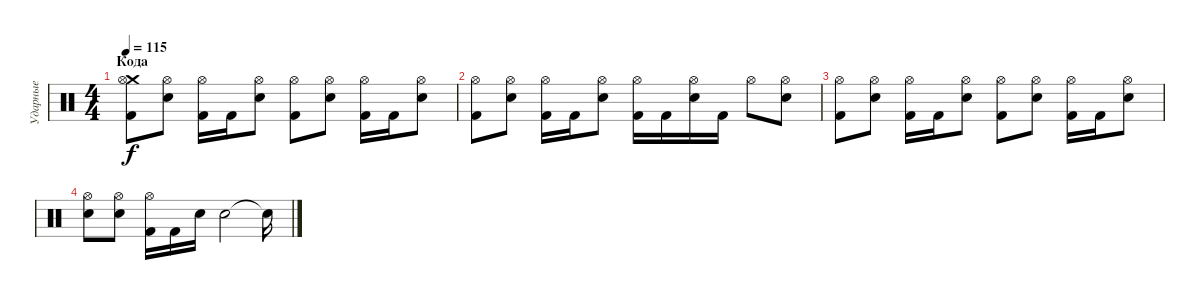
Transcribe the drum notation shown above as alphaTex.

\track ("Ударные" "Ударные") {instrument percussion}
\staff {score}
\articulation defaults
\ts (4 4)
\section ("" "Кода")
\tempo 115
\clef neutral
\ks aminor
("Crash medium (hit)" "Kick (hit) 2" "Hi-Hat (open)").8{dy f} ("Electric Snare (hit)" "Hi-Hat (open)").8 ("Kick (hit) 2" "Hi-Hat (open)").16 "Kick (hit) 2".16 ("Electric Snare (hit)" "Hi-Hat (open)").8 ("Kick (hit) 2" "Hi-Hat (open)").8 ("Electric Snare (hit)" "Hi-Hat (open)").8 ("Kick (hit) 2" "Hi-Hat (open)").16 "Kick (hit) 2".16 ("Electric Snare (hit)" "Hi-Hat (open)").8 |
("Kick (hit) 2" "Hi-Hat (open)").8 ("Electric Snare (hit)" "Hi-Hat (open)").8 ("Kick (hit) 2" "Hi-Hat (open)").16 "Kick (hit) 2".16 ("Electric Snare (hit)" "Hi-Hat (open)").8 ("Kick (hit) 2" "Hi-Hat (open)").16 "Kick (hit) 2".16 ("Electric Snare (hit)" "Hi-Hat (open)").16 "Kick (hit) 2".16 "Hi-Hat (open)".8 ("Electric Snare (hit)" "Hi-Hat (open)").8 |
("Kick (hit) 2" "Hi-Hat (open)").8 ("Electric Snare (hit)" "Hi-Hat (open)").8 ("Kick (hit) 2" "Hi-Hat (open)").16 "Kick (hit) 2".16 ("Electric Snare (hit)" "Hi-Hat (open)").8 ("Kick (hit) 2" "Hi-Hat (open)").8 ("Electric Snare (hit)" "Hi-Hat (open)").8 ("Kick (hit) 2" "Hi-Hat (open)").16 "Kick (hit) 2".16 ("Electric Snare (hit)" "Hi-Hat (open)").8 |
("Electric Snare (hit)" "Hi-Hat (open)").8 ("Electric Snare (hit)" "Hi-Hat (open)").8 ("Kick (hit) 2" "Hi-Hat (open)").16 "Kick (hit) 2".16 "Electric Snare (hit)".16 "Electric Snare (hit)".2 "Snare (hit)"{t}.16
